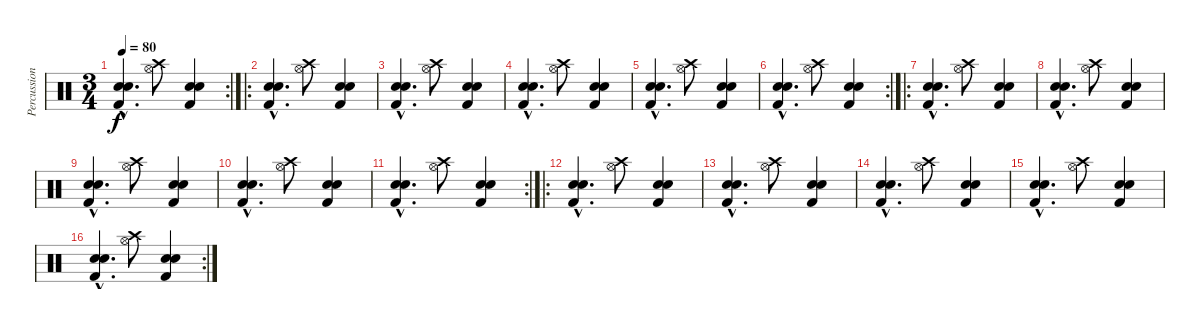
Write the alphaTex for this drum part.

\track ("Percussions" "Percussion") {instrument percussion}
\staff {score}
\articulation defaults
\rc 2
\ts (3 4)
\tempo 80
\clef neutral
\ks c
("Snare (hit) 2"{hac} "Snare (hit) 2"{hac} "Kick (hit) 2"{hac}).4{d dy f} ("Crash high (hit)" "Hi-Hat (open)").8 ("Snare (hit) 2" "Snare (hit) 2" "Kick (hit) 2").4 |
\ro
("Snare (hit) 2"{hac} "Snare (hit) 2"{hac} "Kick (hit) 2"{hac}).4{d} ("Crash high (hit)" "Hi-Hat (open)").8 ("Snare (hit) 2" "Snare (hit) 2" "Kick (hit) 2").4 |
("Snare (hit) 2"{hac} "Snare (hit) 2"{hac} "Kick (hit) 2"{hac}).4{d} ("Crash high (hit)" "Hi-Hat (open)").8 ("Snare (hit) 2" "Snare (hit) 2" "Kick (hit) 2").4 |
("Snare (hit) 2"{hac} "Snare (hit) 2"{hac} "Kick (hit) 2"{hac}).4{d} ("Crash high (hit)" "Hi-Hat (open)").8 ("Snare (hit) 2" "Snare (hit) 2" "Kick (hit) 2").4 |
("Snare (hit) 2"{hac} "Snare (hit) 2"{hac} "Kick (hit) 2"{hac}).4{d} ("Crash high (hit)" "Hi-Hat (open)").8 ("Snare (hit) 2" "Snare (hit) 2" "Kick (hit) 2").4 |
\rc 2
("Snare (hit) 2"{hac} "Snare (hit) 2"{hac} "Kick (hit) 2"{hac}).4{d} ("Crash high (hit)" "Hi-Hat (open)").8 ("Snare (hit) 2" "Snare (hit) 2" "Kick (hit) 2").4 |
\ro
("Snare (hit) 2"{hac} "Snare (hit) 2"{hac} "Kick (hit) 2"{hac}).4{d} ("Crash high (hit)" "Hi-Hat (open)").8 ("Snare (hit) 2" "Snare (hit) 2" "Kick (hit) 2").4 |
("Snare (hit) 2"{hac} "Snare (hit) 2"{hac} "Kick (hit) 2"{hac}).4{d} ("Crash high (hit)" "Hi-Hat (open)").8 ("Snare (hit) 2" "Snare (hit) 2" "Kick (hit) 2").4 |
("Snare (hit) 2"{hac} "Snare (hit) 2"{hac} "Kick (hit) 2"{hac}).4{d} ("Crash high (hit)" "Hi-Hat (open)").8 ("Snare (hit) 2" "Snare (hit) 2" "Kick (hit) 2").4 |
("Snare (hit) 2"{hac} "Snare (hit) 2"{hac} "Kick (hit) 2"{hac}).4{d} ("Crash high (hit)" "Hi-Hat (open)").8 ("Snare (hit) 2" "Snare (hit) 2" "Kick (hit) 2").4 |
\rc 2
("Snare (hit) 2"{hac} "Snare (hit) 2"{hac} "Kick (hit) 2"{hac}).4{d} ("Crash high (hit)" "Hi-Hat (open)").8 ("Snare (hit) 2" "Snare (hit) 2" "Kick (hit) 2").4 |
\ro
("Snare (hit) 2"{hac} "Snare (hit) 2"{hac} "Kick (hit) 2"{hac}).4{d} ("Crash high (hit)" "Hi-Hat (open)").8 ("Snare (hit) 2" "Snare (hit) 2" "Kick (hit) 2").4 |
("Snare (hit) 2"{hac} "Snare (hit) 2"{hac} "Kick (hit) 2"{hac}).4{d} ("Crash high (hit)" "Hi-Hat (open)").8 ("Snare (hit) 2" "Snare (hit) 2" "Kick (hit) 2").4 |
("Snare (hit) 2"{hac} "Snare (hit) 2"{hac} "Kick (hit) 2"{hac}).4{d} ("Crash high (hit)" "Hi-Hat (open)").8 ("Snare (hit) 2" "Snare (hit) 2" "Kick (hit) 2").4 |
("Snare (hit) 2"{hac} "Snare (hit) 2"{hac} "Kick (hit) 2"{hac}).4{d} ("Crash high (hit)" "Hi-Hat (open)").8 ("Snare (hit) 2" "Snare (hit) 2" "Kick (hit) 2").4 |
\rc 2
("Snare (hit) 2"{hac} "Snare (hit) 2"{hac} "Kick (hit) 2"{hac}).4{d} ("Crash high (hit)" "Hi-Hat (open)").8 ("Snare (hit) 2" "Snare (hit) 2" "Kick (hit) 2").4
